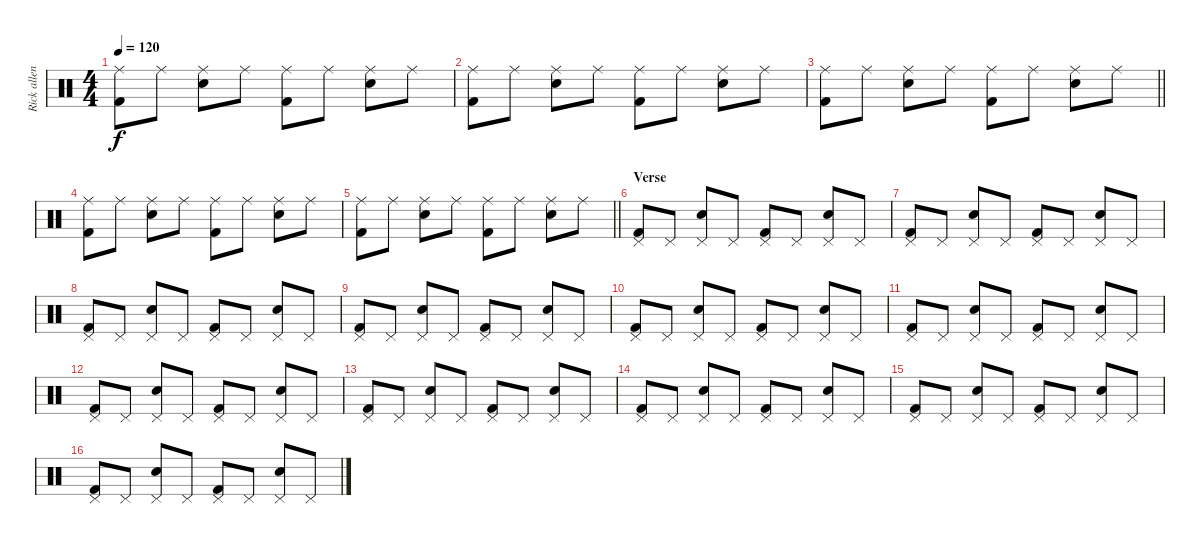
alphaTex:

\track ("Rick allen" "Rick allen") {instrument percussion}
\staff {score}
\articulation defaults
\ts (4 4)
\tempo 120
\clef neutral
\ks c
("Ride (middle)" "Kick (hit) 2").8{dy f} "Ride (middle)".8 ("Ride (middle)" "Snare (hit) 2").8 "Ride (middle)".8 ("Ride (middle)" "Kick (hit) 2").8 "Ride (middle)".8 ("Ride (middle)" "Snare (hit) 2").8 "Ride (middle)".8 |
("Ride (middle)" "Kick (hit) 2").8 "Ride (middle)".8 ("Ride (middle)" "Snare (hit) 2").8 "Ride (middle)".8 ("Ride (middle)" "Kick (hit) 2").8 "Ride (middle)".8 ("Ride (middle)" "Snare (hit) 2").8 "Ride (middle)".8 |
\barLineRight lightlight
("Ride (middle)" "Kick (hit) 2").8 "Ride (middle)".8 ("Ride (middle)" "Snare (hit) 2").8 "Ride (middle)".8 ("Ride (middle)" "Kick (hit) 2").8 "Ride (middle)".8 ("Ride (middle)" "Snare (hit) 2").8 "Ride (middle)".8 |
("Ride (middle)" "Kick (hit) 2").8 "Ride (middle)".8 ("Ride (middle)" "Snare (hit) 2").8 "Ride (middle)".8 ("Ride (middle)" "Kick (hit) 2").8 "Ride (middle)".8 ("Ride (middle)" "Snare (hit) 2").8 "Ride (middle)".8 |
\barLineRight lightlight
("Ride (middle)" "Kick (hit) 2").8 "Ride (middle)".8 ("Ride (middle)" "Snare (hit) 2").8 "Ride (middle)".8 ("Ride (middle)" "Kick (hit) 2").8 "Ride (middle)".8 ("Ride (middle)" "Snare (hit) 2").8 "Ride (middle)".8 |
\section ("" "Verse")
("Pedal Hi-Hat (hit)" "Kick (hit) 2").8 "Pedal Hi-Hat (hit)".8 ("Pedal Hi-Hat (hit)" "Snare (hit) 2").8 "Pedal Hi-Hat (hit)".8 ("Pedal Hi-Hat (hit)" "Kick (hit) 2").8 "Pedal Hi-Hat (hit)".8 ("Pedal Hi-Hat (hit)" "Snare (hit) 2").8 "Pedal Hi-Hat (hit)".8 |
("Pedal Hi-Hat (hit)" "Kick (hit) 2").8 "Pedal Hi-Hat (hit)".8 ("Pedal Hi-Hat (hit)" "Snare (hit) 2").8 "Pedal Hi-Hat (hit)".8 ("Pedal Hi-Hat (hit)" "Kick (hit) 2").8 "Pedal Hi-Hat (hit)".8 ("Pedal Hi-Hat (hit)" "Snare (hit) 2").8 "Pedal Hi-Hat (hit)".8 |
("Pedal Hi-Hat (hit)" "Kick (hit) 2").8 "Pedal Hi-Hat (hit)".8 ("Pedal Hi-Hat (hit)" "Snare (hit) 2").8 "Pedal Hi-Hat (hit)".8 ("Pedal Hi-Hat (hit)" "Kick (hit) 2").8 "Pedal Hi-Hat (hit)".8 ("Pedal Hi-Hat (hit)" "Snare (hit) 2").8 "Pedal Hi-Hat (hit)".8 |
("Pedal Hi-Hat (hit)" "Kick (hit) 2").8 "Pedal Hi-Hat (hit)".8 ("Pedal Hi-Hat (hit)" "Snare (hit) 2").8 "Pedal Hi-Hat (hit)".8 ("Pedal Hi-Hat (hit)" "Kick (hit) 2").8 "Pedal Hi-Hat (hit)".8 ("Pedal Hi-Hat (hit)" "Snare (hit) 2").8 "Pedal Hi-Hat (hit)".8 |
("Pedal Hi-Hat (hit)" "Kick (hit) 2").8 "Pedal Hi-Hat (hit)".8 ("Pedal Hi-Hat (hit)" "Snare (hit) 2").8 "Pedal Hi-Hat (hit)".8 ("Pedal Hi-Hat (hit)" "Kick (hit) 2").8 "Pedal Hi-Hat (hit)".8 ("Pedal Hi-Hat (hit)" "Snare (hit) 2").8 "Pedal Hi-Hat (hit)".8 |
("Pedal Hi-Hat (hit)" "Kick (hit) 2").8 "Pedal Hi-Hat (hit)".8 ("Pedal Hi-Hat (hit)" "Snare (hit) 2").8 "Pedal Hi-Hat (hit)".8 ("Pedal Hi-Hat (hit)" "Kick (hit) 2").8 "Pedal Hi-Hat (hit)".8 ("Pedal Hi-Hat (hit)" "Snare (hit) 2").8 "Pedal Hi-Hat (hit)".8 |
("Pedal Hi-Hat (hit)" "Kick (hit) 2").8 "Pedal Hi-Hat (hit)".8 ("Pedal Hi-Hat (hit)" "Snare (hit) 2").8 "Pedal Hi-Hat (hit)".8 ("Pedal Hi-Hat (hit)" "Kick (hit) 2").8 "Pedal Hi-Hat (hit)".8 ("Pedal Hi-Hat (hit)" "Snare (hit) 2").8 "Pedal Hi-Hat (hit)".8 |
("Pedal Hi-Hat (hit)" "Kick (hit) 2").8 "Pedal Hi-Hat (hit)".8 ("Pedal Hi-Hat (hit)" "Snare (hit) 2").8 "Pedal Hi-Hat (hit)".8 ("Pedal Hi-Hat (hit)" "Kick (hit) 2").8 "Pedal Hi-Hat (hit)".8 ("Pedal Hi-Hat (hit)" "Snare (hit) 2").8 "Pedal Hi-Hat (hit)".8 |
("Pedal Hi-Hat (hit)" "Kick (hit) 2").8 "Pedal Hi-Hat (hit)".8 ("Pedal Hi-Hat (hit)" "Snare (hit) 2").8 "Pedal Hi-Hat (hit)".8 ("Pedal Hi-Hat (hit)" "Kick (hit) 2").8 "Pedal Hi-Hat (hit)".8 ("Pedal Hi-Hat (hit)" "Snare (hit) 2").8 "Pedal Hi-Hat (hit)".8 |
("Pedal Hi-Hat (hit)" "Kick (hit) 2").8 "Pedal Hi-Hat (hit)".8 ("Pedal Hi-Hat (hit)" "Snare (hit) 2").8 "Pedal Hi-Hat (hit)".8 ("Pedal Hi-Hat (hit)" "Kick (hit) 2").8 "Pedal Hi-Hat (hit)".8 ("Pedal Hi-Hat (hit)" "Snare (hit) 2").8 "Pedal Hi-Hat (hit)".8 |
("Pedal Hi-Hat (hit)" "Kick (hit) 2").8 "Pedal Hi-Hat (hit)".8 ("Pedal Hi-Hat (hit)" "Snare (hit) 2").8 "Pedal Hi-Hat (hit)".8 ("Pedal Hi-Hat (hit)" "Kick (hit) 2").8 "Pedal Hi-Hat (hit)".8 ("Pedal Hi-Hat (hit)" "Snare (hit) 2").8 "Pedal Hi-Hat (hit)".8
